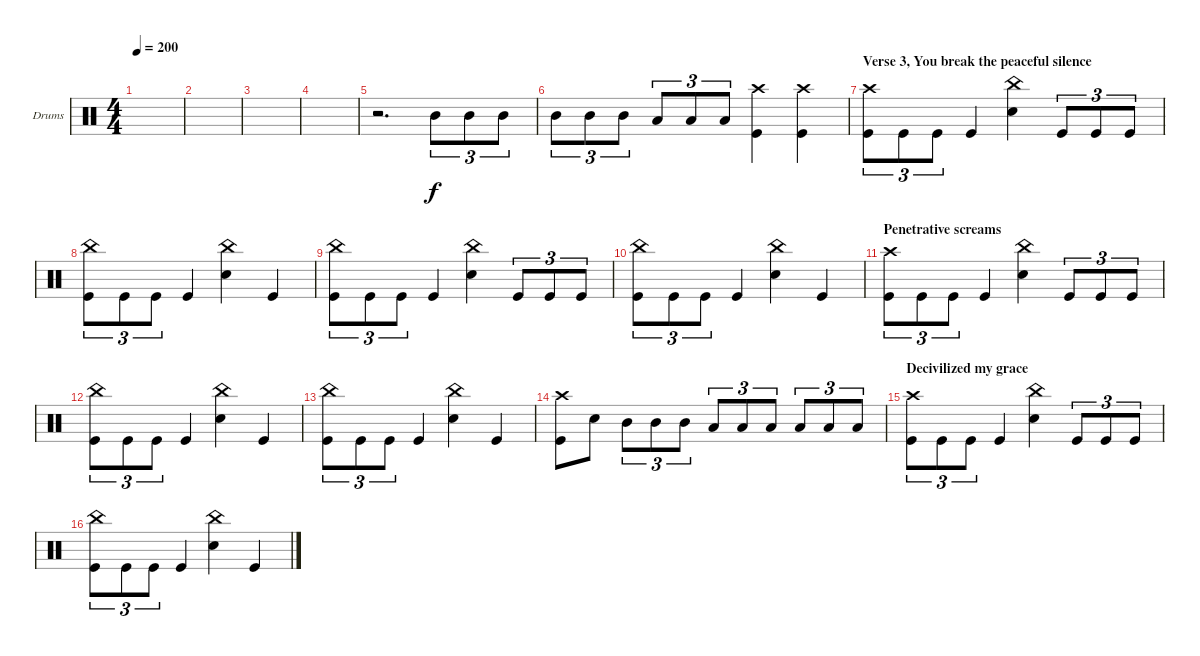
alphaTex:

\defaultSystemsLayout 4
\bracketExtendMode groupsimilarinstruments
\firstSystemTrackNameOrientation horizontal
\otherSystemsTrackNameOrientation horizontal
\track ("Markus Freiwald" "Drums") {instrument percussion}
\staff {score}
\articulation defaults
\ts (4 4)
\tempo 200
\clef neutral
\ks c
|
|
|
|
r.2{d} "Mid Tom (hit)".8{tu (3 2)} "Mid Tom (hit)".8{tu (3 2)} "Mid Tom (hit)".8{tu (3 2)} |
"Mid Tom (hit)".8{tu (3 2)} "Mid Tom (hit)".8{tu (3 2)} "Mid Tom (hit)".8{tu (3 2)} "Low Tom (hit)".8{tu (3 2)} "Low Tom (hit)".8{tu (3 2)} "Low Tom (hit)".8{tu (3 2)} ("Kick (hit)" "Crash high (hit)").4 ("Crash high (hit)" "Kick (hit)").4 |
\section ("" "Verse 3, You break the peaceful silence")
("Crash high (hit)" "Kick (hit)").8{tu (3 2)} "Kick (hit)".8{tu (3 2)} "Kick (hit)".8{tu (3 2)} "Kick (hit)".4 ("Snare (hit) 2" "China (hit)").4 "Kick (hit)".8{tu (3 2)} "Kick (hit)".8{tu (3 2)} "Kick (hit)".8{tu (3 2)} |
("Kick (hit)" "China (hit)").8{tu (3 2)} "Kick (hit)".8{tu (3 2)} "Kick (hit)".8{tu (3 2)} "Kick (hit)".4 ("Snare (hit) 2" "China (hit)").4 "Kick (hit)".4 |
("Kick (hit)" "China (hit)").8{tu (3 2)} "Kick (hit)".8{tu (3 2)} "Kick (hit)".8{tu (3 2)} "Kick (hit)".4 ("Snare (hit) 2" "China (hit)").4 "Kick (hit)".8{tu (3 2)} "Kick (hit)".8{tu (3 2)} "Kick (hit)".8{tu (3 2)} |
("Kick (hit)" "China (hit)").8{tu (3 2)} "Kick (hit)".8{tu (3 2)} "Kick (hit)".8{tu (3 2)} "Kick (hit)".4 ("Snare (hit) 2" "China (hit)").4 "Kick (hit)".4 |
\section ("" "Penetrative screams")
("Crash high (hit)" "Kick (hit)").8{tu (3 2)} "Kick (hit)".8{tu (3 2)} "Kick (hit)".8{tu (3 2)} "Kick (hit)".4 ("Snare (hit) 2" "China (hit)").4 "Kick (hit)".8{tu (3 2)} "Kick (hit)".8{tu (3 2)} "Kick (hit)".8{tu (3 2)} |
("Kick (hit)" "China (hit)").8{tu (3 2)} "Kick (hit)".8{tu (3 2)} "Kick (hit)".8{tu (3 2)} "Kick (hit)".4 ("Snare (hit) 2" "China (hit)").4 "Kick (hit)".4 |
("Kick (hit)" "China (hit)").8{tu (3 2)} "Kick (hit)".8{tu (3 2)} "Kick (hit)".8{tu (3 2)} "Kick (hit)".4 ("Snare (hit) 2" "China (hit)").4 "Kick (hit)".4 |
("Kick (hit)" "Crash high (hit)").8 "Snare (hit) 2".8 "Mid Tom (hit)".8{tu (3 2)} "Mid Tom (hit)".8{tu (3 2)} "Mid Tom (hit)".8{tu (3 2)} "Low Tom (hit)".8{tu (3 2)} "Low Tom (hit)".8{tu (3 2)} "Low Tom (hit)".8{tu (3 2)} "Low Tom (hit)".8{tu (3 2)} "Low Tom (hit)".8{tu (3 2)} "Low Tom (hit)".8{tu (3 2)} |
\section ("" "Decivilized my grace")
("Crash high (hit)" "Kick (hit)").8{tu (3 2)} "Kick (hit)".8{tu (3 2)} "Kick (hit)".8{tu (3 2)} "Kick (hit)".4 ("Snare (hit) 2" "China (hit)").4 "Kick (hit)".8{tu (3 2)} "Kick (hit)".8{tu (3 2)} "Kick (hit)".8{tu (3 2)} |
("Kick (hit)" "China (hit)").8{tu (3 2)} "Kick (hit)".8{tu (3 2)} "Kick (hit)".8{tu (3 2)} "Kick (hit)".4 ("Snare (hit) 2" "China (hit)").4 "Kick (hit)".4
